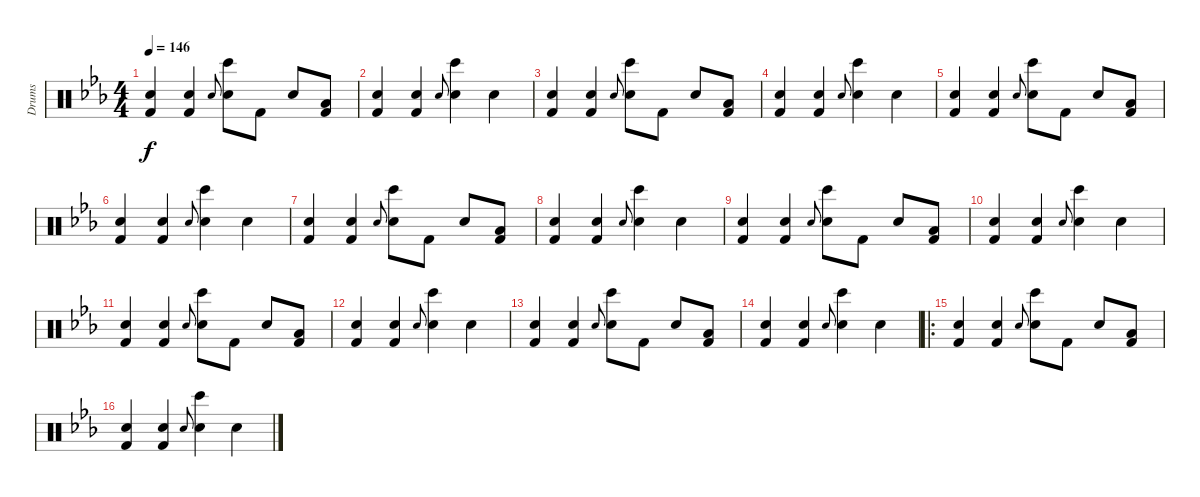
\track ("Drums" "Drums") {instrument percussion}
\staff {score}
\articulation defaults
\ts (4 4)
\tempo 146
\clef neutral
\ks cminor
("Hand Clap (hit)" "Kick (hit) 2").4{dy f} ("Hand Clap (hit)" "Kick (hit) 2").4 "Electric Snare (hit)".8{gr onbeat} ("Hand Clap (hit)" "Bongo High (hit)").8 "Kick (hit) 2".8 "Hand Clap (hit)".8 ("Low Floor Tom (hit)" "Kick (hit) 2").8 |
("Hand Clap (hit)" "Kick (hit) 2").4 ("Hand Clap (hit)" "Kick (hit) 2").4 "Electric Snare (hit)".8{gr onbeat} ("Hand Clap (hit)" "Bongo High (hit)").4 "Hand Clap (hit)".4 |
("Hand Clap (hit)" "Kick (hit) 2").4 ("Hand Clap (hit)" "Kick (hit) 2").4 "Electric Snare (hit)".8{gr onbeat} ("Hand Clap (hit)" "Bongo High (hit)").8 "Kick (hit) 2".8 "Hand Clap (hit)".8 ("Low Floor Tom (hit)" "Kick (hit) 2").8 |
("Hand Clap (hit)" "Kick (hit) 2").4 ("Hand Clap (hit)" "Kick (hit) 2").4 "Electric Snare (hit)".8{gr onbeat} ("Hand Clap (hit)" "Bongo High (hit)").4 "Hand Clap (hit)".4 |
("Hand Clap (hit)" "Kick (hit) 2").4 ("Hand Clap (hit)" "Kick (hit) 2").4 "Electric Snare (hit)".8{gr onbeat} ("Hand Clap (hit)" "Bongo High (hit)").8 "Kick (hit) 2".8 "Hand Clap (hit)".8 ("Low Floor Tom (hit)" "Kick (hit) 2").8 |
("Hand Clap (hit)" "Kick (hit) 2").4 ("Hand Clap (hit)" "Kick (hit) 2").4 "Electric Snare (hit)".8{gr onbeat} ("Hand Clap (hit)" "Bongo High (hit)").4 "Hand Clap (hit)".4 |
("Hand Clap (hit)" "Kick (hit) 2").4 ("Hand Clap (hit)" "Kick (hit) 2").4 "Electric Snare (hit)".8{gr onbeat} ("Hand Clap (hit)" "Bongo High (hit)").8 "Kick (hit) 2".8 "Hand Clap (hit)".8 ("Low Floor Tom (hit)" "Kick (hit) 2").8 |
("Hand Clap (hit)" "Kick (hit) 2").4 ("Hand Clap (hit)" "Kick (hit) 2").4 "Electric Snare (hit)".8{gr onbeat} ("Hand Clap (hit)" "Bongo High (hit)").4 "Hand Clap (hit)".4 |
("Hand Clap (hit)" "Kick (hit) 2").4 ("Hand Clap (hit)" "Kick (hit) 2").4 "Electric Snare (hit)".8{gr onbeat} ("Hand Clap (hit)" "Bongo High (hit)").8 "Kick (hit) 2".8 "Hand Clap (hit)".8 ("Low Floor Tom (hit)" "Kick (hit) 2").8 |
("Hand Clap (hit)" "Kick (hit) 2").4 ("Hand Clap (hit)" "Kick (hit) 2").4 "Electric Snare (hit)".8{gr onbeat} ("Hand Clap (hit)" "Bongo High (hit)").4 "Hand Clap (hit)".4 |
("Hand Clap (hit)" "Kick (hit) 2").4 ("Hand Clap (hit)" "Kick (hit) 2").4 "Electric Snare (hit)".8{gr onbeat} ("Hand Clap (hit)" "Bongo High (hit)").8 "Kick (hit) 2".8 "Hand Clap (hit)".8 ("Low Floor Tom (hit)" "Kick (hit) 2").8 |
("Hand Clap (hit)" "Kick (hit) 2").4 ("Hand Clap (hit)" "Kick (hit) 2").4 "Electric Snare (hit)".8{gr onbeat} ("Hand Clap (hit)" "Bongo High (hit)").4 "Hand Clap (hit)".4 |
("Hand Clap (hit)" "Kick (hit) 2").4 ("Hand Clap (hit)" "Kick (hit) 2").4 "Electric Snare (hit)".8{gr onbeat} ("Hand Clap (hit)" "Bongo High (hit)").8 "Kick (hit) 2".8 "Hand Clap (hit)".8 ("Low Floor Tom (hit)" "Kick (hit) 2").8 |
("Hand Clap (hit)" "Kick (hit) 2").4 ("Hand Clap (hit)" "Kick (hit) 2").4 "Electric Snare (hit)".8{gr onbeat} ("Hand Clap (hit)" "Bongo High (hit)").4 "Hand Clap (hit)".4 |
\ro
("Hand Clap (hit)" "Kick (hit) 2").4 ("Hand Clap (hit)" "Kick (hit) 2").4 "Electric Snare (hit)".8{gr onbeat} ("Hand Clap (hit)" "Bongo High (hit)").8 "Kick (hit) 2".8 "Hand Clap (hit)".8 ("Low Floor Tom (hit)" "Kick (hit) 2").8 |
("Hand Clap (hit)" "Kick (hit) 2").4 ("Hand Clap (hit)" "Kick (hit) 2").4 "Electric Snare (hit)".8{gr onbeat} ("Hand Clap (hit)" "Bongo High (hit)").4 "Hand Clap (hit)".4
